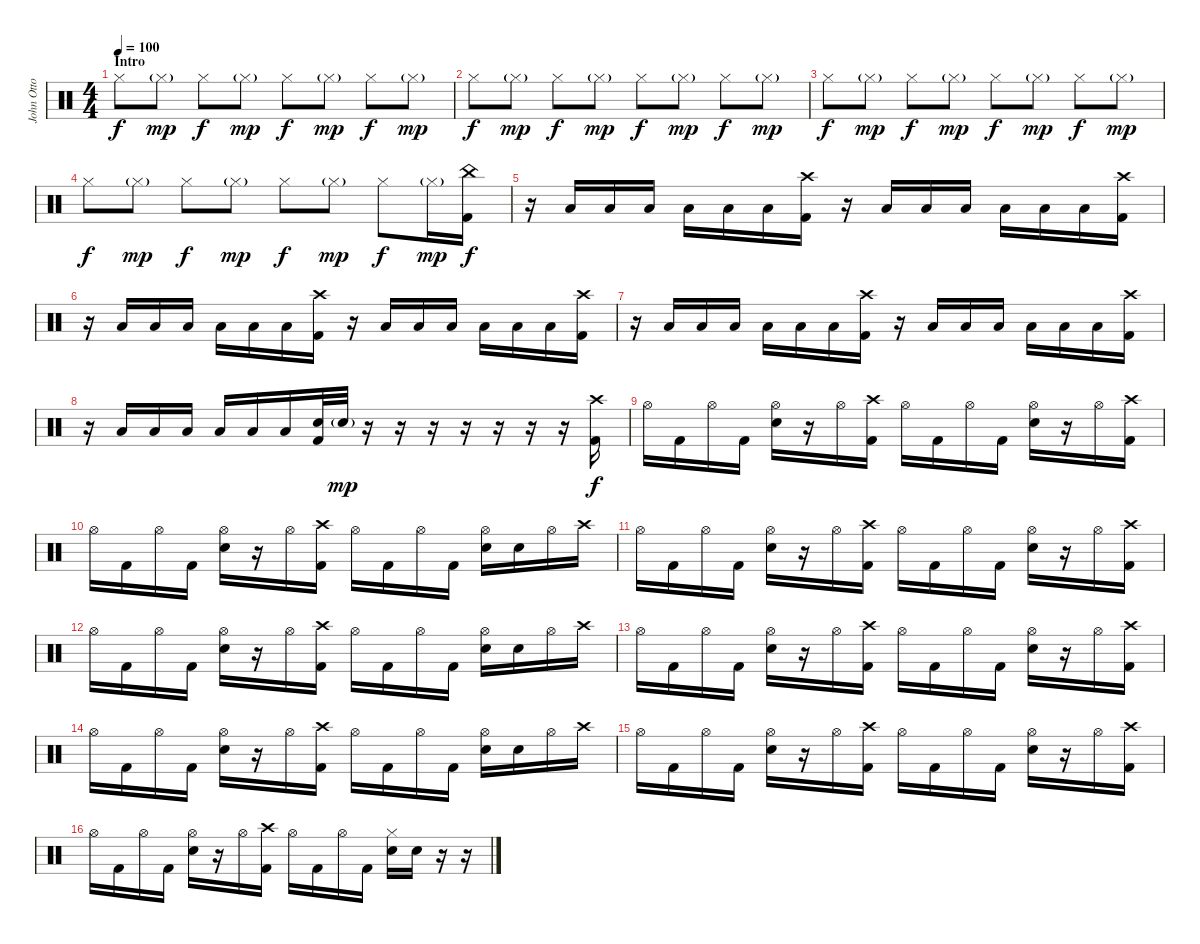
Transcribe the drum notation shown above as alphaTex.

\track ("John Otto" "John Otto") {instrument percussion}
\staff {score}
\articulation defaults
\ts (4 4)
\section ("" "Intro")
\tempo 100
\clef neutral
\ks c "Hi-Hat (closed)".8{dy f} "Hi-Hat (closed)"{g}.8{dy mp} "Hi-Hat (closed)".8{dy f} "Hi-Hat (closed)"{g}.8{dy mp} "Hi-Hat (closed)".8{dy f} "Hi-Hat (closed)"{g}.8{dy mp} "Hi-Hat (closed)".8{dy f} "Hi-Hat (closed)"{g}.8{dy mp}
|
"Hi-Hat (closed)".8{dy f} "Hi-Hat (closed)"{g}.8{dy mp} "Hi-Hat (closed)".8{dy f} "Hi-Hat (closed)"{g}.8{dy mp} "Hi-Hat (closed)".8{dy f} "Hi-Hat (closed)"{g}.8{dy mp} "Hi-Hat (closed)".8{dy f} "Hi-Hat (closed)"{g}.8{dy mp} |
"Hi-Hat (closed)".8{dy f} "Hi-Hat (closed)"{g}.8{dy mp} "Hi-Hat (closed)".8{dy f} "Hi-Hat (closed)"{g}.8{dy mp} "Hi-Hat (closed)".8{dy f} "Hi-Hat (closed)"{g}.8{dy mp} "Hi-Hat (closed)".8{dy f} "Hi-Hat (closed)"{g}.8{dy mp} |
"Hi-Hat (closed)".8{dy f} "Hi-Hat (closed)"{g}.8{dy mp} "Hi-Hat (closed)".8{dy f} "Hi-Hat (closed)"{g}.8{dy mp} "Hi-Hat (closed)".8{dy f} "Hi-Hat (closed)"{g}.8{dy mp} "Hi-Hat (closed)".8{dy f} "Hi-Hat (closed)"{g}.16{dy mp} ("China (hit)" "Kick (hit) 2").16{dy f} |
r.16 "Low Floor Tom (hit)".16 "Low Floor Tom (hit)".16 "Low Floor Tom (hit)".16 "Low Floor Tom (hit)".16 "Low Floor Tom (hit)".16 "Low Floor Tom (hit)".16 ("Crash high (hit)" "Kick (hit) 2").16 r.16 "Low Floor Tom (hit)".16 "Low Floor Tom (hit)".16 "Low Floor Tom (hit)".16 "Low Floor Tom (hit)".16 "Low Floor Tom (hit)".16 "Low Floor Tom (hit)".16 ("Crash high (hit)" "Kick (hit) 2").16 |
r.16 "Low Floor Tom (hit)".16 "Low Floor Tom (hit)".16 "Low Floor Tom (hit)".16 "Low Floor Tom (hit)".16 "Low Floor Tom (hit)".16 "Low Floor Tom (hit)".16 ("Crash high (hit)" "Kick (hit) 2").16 r.16 "Low Floor Tom (hit)".16 "Low Floor Tom (hit)".16 "Low Floor Tom (hit)".16 "Low Floor Tom (hit)".16 "Low Floor Tom (hit)".16 "Low Floor Tom (hit)".16 ("Crash high (hit)" "Kick (hit) 2").16 |
r.16 "Low Floor Tom (hit)".16 "Low Floor Tom (hit)".16 "Low Floor Tom (hit)".16 "Low Floor Tom (hit)".16 "Low Floor Tom (hit)".16 "Low Floor Tom (hit)".16 ("Crash high (hit)" "Kick (hit) 2").16 r.16 "Low Floor Tom (hit)".16 "Low Floor Tom (hit)".16 "Low Floor Tom (hit)".16 "Low Floor Tom (hit)".16 "Low Floor Tom (hit)".16 "Low Floor Tom (hit)".16 ("Crash high (hit)" "Kick (hit) 2").16 |
r.16 "Low Floor Tom (hit)".16 "Low Floor Tom (hit)".16 "Low Floor Tom (hit)".16 "Low Floor Tom (hit)".16 "Low Floor Tom (hit)".16 "Low Floor Tom (hit)".16 ("Snare (hit) 2" "Kick (hit) 2").32 "Snare (hit) 2"{g}.32{dy mp} r.16 r.16 r.16 r.16 r.16 r.16 r.16 ("Crash high (hit)" "Kick (hit) 2").16{dy f} |
"Hi-Hat (open)".16 "Kick (hit) 2".16 "Hi-Hat (open)".16 "Kick (hit) 2".16 ("Hi-Hat (open)" "Snare (hit) 2").16 r.16 "Hi-Hat (open)".16 ("Crash high (hit)" "Kick (hit) 2").16 "Hi-Hat (open)".16 "Kick (hit) 2".16 "Hi-Hat (open)".16 "Kick (hit) 2".16 ("Hi-Hat (open)" "Snare (hit) 2").16 r.16 "Hi-Hat (open)".16 ("Crash high (hit)" "Kick (hit) 2").16 |
"Hi-Hat (open)".16 "Kick (hit) 2".16 "Hi-Hat (open)".16 "Kick (hit) 2".16 ("Hi-Hat (open)" "Snare (hit) 2").16 r.16 "Hi-Hat (open)".16 ("Crash high (hit)" "Kick (hit) 2").16 "Hi-Hat (open)".16 "Kick (hit) 2".16 "Hi-Hat (open)".16 "Kick (hit) 2".16 ("Hi-Hat (open)" "Snare (hit) 2").16 "Snare (hit) 2".16 "Hi-Hat (open)".16 "Crash high (hit)".16 |
"Hi-Hat (open)".16 "Kick (hit) 2".16 "Hi-Hat (open)".16 "Kick (hit) 2".16 ("Hi-Hat (open)" "Snare (hit) 2").16 r.16 "Hi-Hat (open)".16 ("Crash high (hit)" "Kick (hit) 2").16 "Hi-Hat (open)".16 "Kick (hit) 2".16 "Hi-Hat (open)".16 "Kick (hit) 2".16 ("Hi-Hat (open)" "Snare (hit) 2").16 r.16 "Hi-Hat (open)".16 ("Crash high (hit)" "Kick (hit) 2").16 |
"Hi-Hat (open)".16 "Kick (hit) 2".16 "Hi-Hat (open)".16 "Kick (hit) 2".16 ("Hi-Hat (open)" "Snare (hit) 2").16 r.16 "Hi-Hat (open)".16 ("Crash high (hit)" "Kick (hit) 2").16 "Hi-Hat (open)".16 "Kick (hit) 2".16 "Hi-Hat (open)".16 "Kick (hit) 2".16 ("Hi-Hat (open)" "Snare (hit) 2").16 "Snare (hit) 2".16 "Hi-Hat (open)".16 "Crash high (hit)".16 |
"Hi-Hat (open)".16 "Kick (hit) 2".16 "Hi-Hat (open)".16 "Kick (hit) 2".16 ("Hi-Hat (open)" "Snare (hit) 2").16 r.16 "Hi-Hat (open)".16 ("Crash high (hit)" "Kick (hit) 2").16 "Hi-Hat (open)".16 "Kick (hit) 2".16 "Hi-Hat (open)".16 "Kick (hit) 2".16 ("Hi-Hat (open)" "Snare (hit) 2").16 r.16 "Hi-Hat (open)".16 ("Crash high (hit)" "Kick (hit) 2").16 |
"Hi-Hat (open)".16 "Kick (hit) 2".16 "Hi-Hat (open)".16 "Kick (hit) 2".16 ("Hi-Hat (open)" "Snare (hit) 2").16 r.16 "Hi-Hat (open)".16 ("Crash high (hit)" "Kick (hit) 2").16 "Hi-Hat (open)".16 "Kick (hit) 2".16 "Hi-Hat (open)".16 "Kick (hit) 2".16 ("Hi-Hat (open)" "Snare (hit) 2").16 "Snare (hit) 2".16 "Hi-Hat (open)".16 "Crash high (hit)".16 |
"Hi-Hat (open)".16 "Kick (hit) 2".16 "Hi-Hat (open)".16 "Kick (hit) 2".16 ("Hi-Hat (open)" "Snare (hit) 2").16 r.16 "Hi-Hat (open)".16 ("Crash high (hit)" "Kick (hit) 2").16 "Hi-Hat (open)".16 "Kick (hit) 2".16 "Hi-Hat (open)".16 "Kick (hit) 2".16 ("Hi-Hat (open)" "Snare (hit) 2").16 r.16 "Hi-Hat (open)".16 ("Crash high (hit)" "Kick (hit) 2").16 |
"Hi-Hat (open)".16 "Kick (hit) 2".16 "Hi-Hat (open)".16 "Kick (hit) 2".16 ("Hi-Hat (open)" "Snare (hit) 2").16 r.16 "Hi-Hat (open)".16 ("Crash high (hit)" "Kick (hit) 2").16 "Hi-Hat (open)".16 "Kick (hit) 2".16 "Hi-Hat (open)".16 "Kick (hit) 2".16 ("Hi-Hat (closed)" "Snare (hit) 2").16 "Snare (hit) 2".16 r.16 r.16
